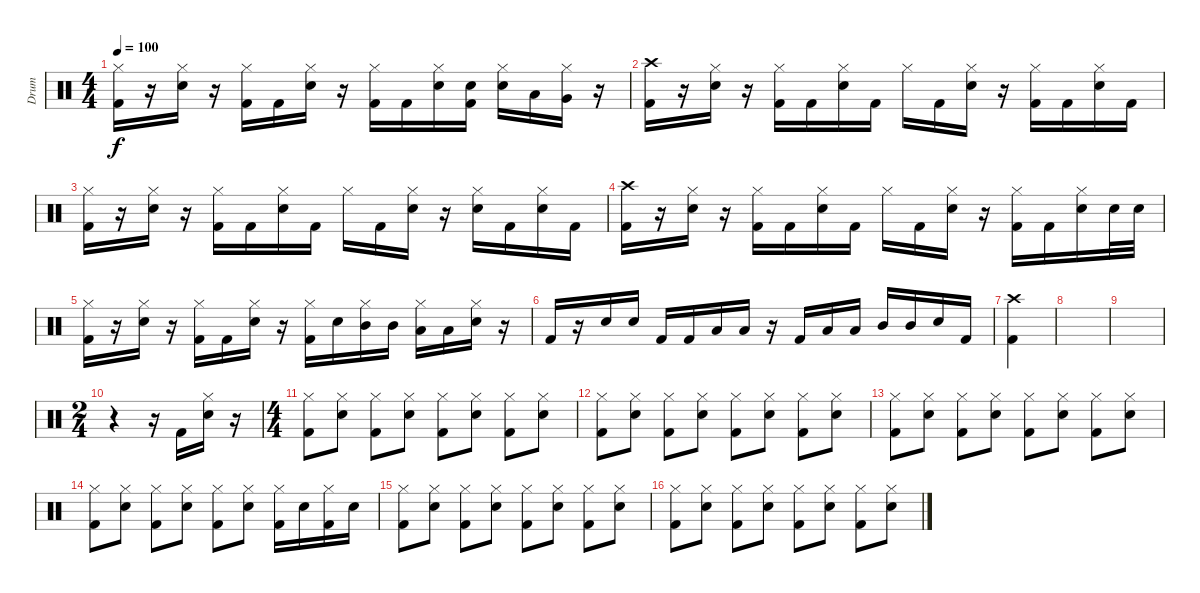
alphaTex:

\track ("Drum" "Drum") {instrument percussion}
\staff {score}
\articulation defaults
\ts (4 4)
\tempo 100
\clef neutral
\ks c
("Hi-Hat (closed)" "Kick (hit) 2").16{dy f} r.16 ("Hi-Hat (closed)" "Electric Snare (hit)").16 r.16 ("Hi-Hat (closed)" "Kick (hit) 2").16 "Kick (hit) 2".16 ("Hi-Hat (closed)" "Electric Snare (hit)").16 r.16 ("Hi-Hat (closed)" "Kick (hit) 2").16 "Kick (hit) 2".16 ("Hi-Hat (closed)" "Electric Snare (hit)").16 ("Electric Snare (hit)" "Kick (hit) 2").16 ("Hi-Hat (closed)" "Electric Snare (hit)").16 "Low Tom (hit)".16 ("Hi-Hat (closed)" "Very Low Tom (hit)").16 r.16 |
("Crash high (hit)" "Kick (hit) 2").16 r.16 ("Hi-Hat (closed)" "Electric Snare (hit)").16 r.16 ("Hi-Hat (closed)" "Kick (hit) 2").16 "Kick (hit) 2".16 ("Hi-Hat (closed)" "Electric Snare (hit)").16 "Kick (hit) 2".16 "Hi-Hat (closed)".16 "Kick (hit) 2".16 ("Hi-Hat (closed)" "Electric Snare (hit)").16 r.16 ("Hi-Hat (closed)" "Kick (hit) 2").16 "Kick (hit) 2".16 ("Hi-Hat (closed)" "Electric Snare (hit)").16 "Kick (hit) 2".16 |
("Hi-Hat (closed)" "Kick (hit) 2").16 r.16 ("Hi-Hat (closed)" "Electric Snare (hit)").16 r.16 ("Hi-Hat (closed)" "Kick (hit) 2").16 "Kick (hit) 2".16 ("Hi-Hat (closed)" "Electric Snare (hit)").16 "Kick (hit) 2".16 "Hi-Hat (closed)".16 "Kick (hit) 2".16 ("Hi-Hat (closed)" "Electric Snare (hit)").16 r.16 ("Hi-Hat (closed)" "Electric Snare (hit)").16 "Kick (hit) 2".16 ("Hi-Hat (closed)" "Electric Snare (hit)").16 "Kick (hit) 2".16 |
("Crash high (hit)" "Kick (hit) 2").16 r.16 ("Hi-Hat (closed)" "Electric Snare (hit)").16 r.16 ("Hi-Hat (closed)" "Kick (hit) 2").16 "Kick (hit) 2".16 ("Hi-Hat (closed)" "Electric Snare (hit)").16 "Kick (hit) 2".16 "Hi-Hat (closed)".16 "Kick (hit) 2".16 ("Hi-Hat (closed)" "Electric Snare (hit)").16 r.16 ("Hi-Hat (closed)" "Kick (hit) 2").16 "Kick (hit) 2".16 ("Hi-Hat (closed)" "Electric Snare (hit)").16 "Electric Snare (hit)".32 "Electric Snare (hit)".32 |
("Hi-Hat (closed)" "Kick (hit) 2").16 r.16 ("Hi-Hat (closed)" "Electric Snare (hit)").16 r.16 ("Hi-Hat (closed)" "Kick (hit) 2").16 "Kick (hit) 2".16 ("Hi-Hat (closed)" "Electric Snare (hit)").16 r.16 ("Hi-Hat (closed)" "Kick (hit) 2").16 "Electric Snare (hit)".16 ("Hi-Hat (closed)" "Mid Tom (hit)").16 "Mid Tom (hit)".16 ("Hi-Hat (closed)" "Low Tom (hit)").16 "Low Tom (hit)".16 ("Hi-Hat (closed)" "Electric Snare (hit)").16 r.16 |
"Kick (hit) 2".16 r.16 "Electric Snare (hit)".16 "Electric Snare (hit)".16 "Kick (hit) 2".16 "Kick (hit) 2".16 "Low Tom (hit)".16 "Low Tom (hit)".16 r.16 "Kick (hit) 2".16 "Low Tom (hit)".16 "Low Tom (hit)".16 "Mid Tom (hit)".16 "Mid Tom (hit)".16 "Electric Snare (hit)".16 "Kick (hit) 2".16 |
("Crash high (hit)" "Kick (hit) 2").4 |
|
|
\ts (2 4)
r.4 r.16 "Kick (hit) 2".16 ("Hi-Hat (closed)" "Electric Snare (hit)").16 r.16 |
\ts (4 4)
("Hi-Hat (closed)" "Kick (hit) 2").8 ("Hi-Hat (closed)" "Electric Snare (hit)").8 ("Hi-Hat (closed)" "Kick (hit) 2").8 ("Hi-Hat (closed)" "Electric Snare (hit)").8 ("Hi-Hat (closed)" "Kick (hit) 2").8 ("Hi-Hat (closed)" "Electric Snare (hit)").8 ("Hi-Hat (closed)" "Kick (hit) 2").8 ("Hi-Hat (closed)" "Electric Snare (hit)").8 |
("Hi-Hat (closed)" "Kick (hit) 2").8 ("Hi-Hat (closed)" "Electric Snare (hit)").8 ("Hi-Hat (closed)" "Kick (hit) 2").8 ("Hi-Hat (closed)" "Electric Snare (hit)").8 ("Hi-Hat (closed)" "Kick (hit) 2").8 ("Hi-Hat (closed)" "Electric Snare (hit)").8 ("Hi-Hat (closed)" "Kick (hit) 2").8 ("Hi-Hat (closed)" "Electric Snare (hit)").8 |
("Hi-Hat (closed)" "Kick (hit) 2").8 ("Hi-Hat (closed)" "Electric Snare (hit)").8 ("Hi-Hat (closed)" "Kick (hit) 2").8 ("Hi-Hat (closed)" "Electric Snare (hit)").8 ("Hi-Hat (closed)" "Kick (hit) 2").8 ("Hi-Hat (closed)" "Electric Snare (hit)").8 ("Hi-Hat (closed)" "Kick (hit) 2").8 ("Hi-Hat (closed)" "Electric Snare (hit)").8 |
("Hi-Hat (closed)" "Kick (hit) 2").8 ("Hi-Hat (closed)" "Electric Snare (hit)").8 ("Hi-Hat (closed)" "Kick (hit) 2").8 ("Hi-Hat (closed)" "Electric Snare (hit)").8 ("Hi-Hat (closed)" "Kick (hit) 2").8 ("Hi-Hat (closed)" "Electric Snare (hit)").8 ("Hi-Hat (closed)" "Kick (hit) 2").16 "Electric Snare (hit)".16 ("Hi-Hat (closed)" "Kick (hit) 2").16 "Electric Snare (hit)".16 |
("Hi-Hat (closed)" "Kick (hit) 2").8 ("Hi-Hat (closed)" "Electric Snare (hit)").8 ("Hi-Hat (closed)" "Kick (hit) 2").8 ("Hi-Hat (closed)" "Electric Snare (hit)").8 ("Hi-Hat (closed)" "Kick (hit) 2").8 ("Hi-Hat (closed)" "Electric Snare (hit)").8 ("Hi-Hat (closed)" "Kick (hit) 2").8 ("Hi-Hat (closed)" "Electric Snare (hit)").8 |
("Hi-Hat (closed)" "Kick (hit) 2").8 ("Hi-Hat (closed)" "Electric Snare (hit)").8 ("Hi-Hat (closed)" "Kick (hit) 2").8 ("Hi-Hat (closed)" "Electric Snare (hit)").8 ("Hi-Hat (closed)" "Kick (hit) 2").8 ("Hi-Hat (closed)" "Electric Snare (hit)").8 ("Hi-Hat (closed)" "Kick (hit) 2").8 ("Hi-Hat (closed)" "Electric Snare (hit)").8
